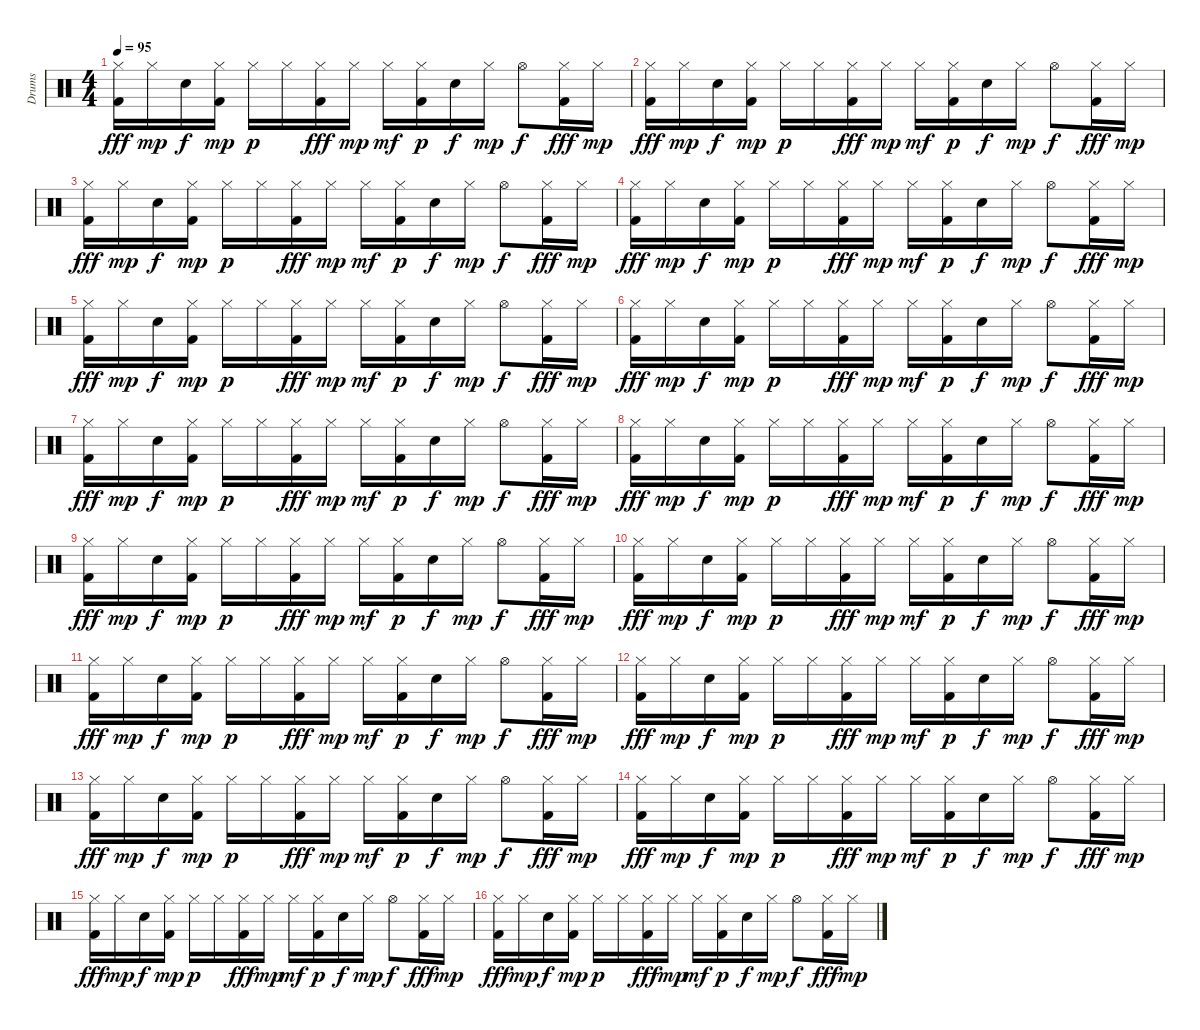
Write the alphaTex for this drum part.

\track ("Drums" "Drums") {instrument percussion}
\staff {score}
\articulation defaults
\ts (4 4)
\tempo 95
\clef neutral
\ks c
("Hi-Hat (closed)" "Kick (hit) 2").16{dy fff} "Hi-Hat (closed)".16{dy mp} "Electric Snare (hit)".16{dy f} ("Hi-Hat (closed)" "Kick (hit) 2").16{dy mp} "Hi-Hat (closed)".16{dy p} "Hi-Hat (closed)".16 ("Hi-Hat (closed)" "Kick (hit) 2").16{dy fff} "Hi-Hat (closed)".16{dy mp} "Hi-Hat (closed)".16{dy mf} ("Hi-Hat (closed)" "Kick (hit) 2").16{dy p} "Electric Snare (hit)".16{dy f} "Hi-Hat (closed)".16{dy mp} "Hi-Hat (open)".8{dy f} ("Hi-Hat (closed)" "Kick (hit) 2").16{dy fff} "Hi-Hat (closed)".16{dy mp} |
("Hi-Hat (closed)" "Kick (hit) 2").16{dy fff} "Hi-Hat (closed)".16{dy mp} "Electric Snare (hit)".16{dy f} ("Hi-Hat (closed)" "Kick (hit) 2").16{dy mp} "Hi-Hat (closed)".16{dy p} "Hi-Hat (closed)".16 ("Hi-Hat (closed)" "Kick (hit) 2").16{dy fff} "Hi-Hat (closed)".16{dy mp} "Hi-Hat (closed)".16{dy mf} ("Hi-Hat (closed)" "Kick (hit) 2").16{dy p} "Electric Snare (hit)".16{dy f} "Hi-Hat (closed)".16{dy mp} "Hi-Hat (open)".8{dy f} ("Hi-Hat (closed)" "Kick (hit) 2").16{dy fff} "Hi-Hat (closed)".16{dy mp} |
("Hi-Hat (closed)" "Kick (hit) 2").16{dy fff} "Hi-Hat (closed)".16{dy mp} "Electric Snare (hit)".16{dy f} ("Hi-Hat (closed)" "Kick (hit) 2").16{dy mp} "Hi-Hat (closed)".16{dy p} "Hi-Hat (closed)".16 ("Hi-Hat (closed)" "Kick (hit) 2").16{dy fff} "Hi-Hat (closed)".16{dy mp} "Hi-Hat (closed)".16{dy mf} ("Hi-Hat (closed)" "Kick (hit) 2").16{dy p} "Electric Snare (hit)".16{dy f} "Hi-Hat (closed)".16{dy mp} "Hi-Hat (open)".8{dy f} ("Hi-Hat (closed)" "Kick (hit) 2").16{dy fff} "Hi-Hat (closed)".16{dy mp} |
("Hi-Hat (closed)" "Kick (hit) 2").16{dy fff} "Hi-Hat (closed)".16{dy mp} "Electric Snare (hit)".16{dy f} ("Hi-Hat (closed)" "Kick (hit) 2").16{dy mp} "Hi-Hat (closed)".16{dy p} "Hi-Hat (closed)".16 ("Hi-Hat (closed)" "Kick (hit) 2").16{dy fff} "Hi-Hat (closed)".16{dy mp} "Hi-Hat (closed)".16{dy mf} ("Hi-Hat (closed)" "Kick (hit) 2").16{dy p} "Electric Snare (hit)".16{dy f} "Hi-Hat (closed)".16{dy mp} "Hi-Hat (open)".8{dy f} ("Hi-Hat (closed)" "Kick (hit) 2").16{dy fff} "Hi-Hat (closed)".16{dy mp} |
("Hi-Hat (closed)" "Kick (hit) 2").16{dy fff} "Hi-Hat (closed)".16{dy mp} "Electric Snare (hit)".16{dy f} ("Hi-Hat (closed)" "Kick (hit) 2").16{dy mp} "Hi-Hat (closed)".16{dy p} "Hi-Hat (closed)".16 ("Hi-Hat (closed)" "Kick (hit) 2").16{dy fff} "Hi-Hat (closed)".16{dy mp} "Hi-Hat (closed)".16{dy mf} ("Hi-Hat (closed)" "Kick (hit) 2").16{dy p} "Electric Snare (hit)".16{dy f} "Hi-Hat (closed)".16{dy mp} "Hi-Hat (open)".8{dy f} ("Hi-Hat (closed)" "Kick (hit) 2").16{dy fff} "Hi-Hat (closed)".16{dy mp} |
("Hi-Hat (closed)" "Kick (hit) 2").16{dy fff} "Hi-Hat (closed)".16{dy mp} "Electric Snare (hit)".16{dy f} ("Hi-Hat (closed)" "Kick (hit) 2").16{dy mp} "Hi-Hat (closed)".16{dy p} "Hi-Hat (closed)".16 ("Hi-Hat (closed)" "Kick (hit) 2").16{dy fff} "Hi-Hat (closed)".16{dy mp} "Hi-Hat (closed)".16{dy mf} ("Hi-Hat (closed)" "Kick (hit) 2").16{dy p} "Electric Snare (hit)".16{dy f} "Hi-Hat (closed)".16{dy mp} "Hi-Hat (open)".8{dy f} ("Hi-Hat (closed)" "Kick (hit) 2").16{dy fff} "Hi-Hat (closed)".16{dy mp} |
("Hi-Hat (closed)" "Kick (hit) 2").16{dy fff} "Hi-Hat (closed)".16{dy mp} "Electric Snare (hit)".16{dy f} ("Hi-Hat (closed)" "Kick (hit) 2").16{dy mp} "Hi-Hat (closed)".16{dy p} "Hi-Hat (closed)".16 ("Hi-Hat (closed)" "Kick (hit) 2").16{dy fff} "Hi-Hat (closed)".16{dy mp} "Hi-Hat (closed)".16{dy mf} ("Hi-Hat (closed)" "Kick (hit) 2").16{dy p} "Electric Snare (hit)".16{dy f} "Hi-Hat (closed)".16{dy mp} "Hi-Hat (open)".8{dy f} ("Hi-Hat (closed)" "Kick (hit) 2").16{dy fff} "Hi-Hat (closed)".16{dy mp} |
("Hi-Hat (closed)" "Kick (hit) 2").16{dy fff} "Hi-Hat (closed)".16{dy mp} "Electric Snare (hit)".16{dy f} ("Hi-Hat (closed)" "Kick (hit) 2").16{dy mp} "Hi-Hat (closed)".16{dy p} "Hi-Hat (closed)".16 ("Hi-Hat (closed)" "Kick (hit) 2").16{dy fff} "Hi-Hat (closed)".16{dy mp} "Hi-Hat (closed)".16{dy mf} ("Hi-Hat (closed)" "Kick (hit) 2").16{dy p} "Electric Snare (hit)".16{dy f} "Hi-Hat (closed)".16{dy mp} "Hi-Hat (open)".8{dy f} ("Hi-Hat (closed)" "Kick (hit) 2").16{dy fff} "Hi-Hat (closed)".16{dy mp} |
("Hi-Hat (closed)" "Kick (hit) 2").16{dy fff} "Hi-Hat (closed)".16{dy mp} "Electric Snare (hit)".16{dy f} ("Hi-Hat (closed)" "Kick (hit) 2").16{dy mp} "Hi-Hat (closed)".16{dy p} "Hi-Hat (closed)".16 ("Hi-Hat (closed)" "Kick (hit) 2").16{dy fff} "Hi-Hat (closed)".16{dy mp} "Hi-Hat (closed)".16{dy mf} ("Hi-Hat (closed)" "Kick (hit) 2").16{dy p} "Electric Snare (hit)".16{dy f} "Hi-Hat (closed)".16{dy mp} "Hi-Hat (open)".8{dy f} ("Hi-Hat (closed)" "Kick (hit) 2").16{dy fff} "Hi-Hat (closed)".16{dy mp} |
("Hi-Hat (closed)" "Kick (hit) 2").16{dy fff} "Hi-Hat (closed)".16{dy mp} "Electric Snare (hit)".16{dy f} ("Hi-Hat (closed)" "Kick (hit) 2").16{dy mp} "Hi-Hat (closed)".16{dy p} "Hi-Hat (closed)".16 ("Hi-Hat (closed)" "Kick (hit) 2").16{dy fff} "Hi-Hat (closed)".16{dy mp} "Hi-Hat (closed)".16{dy mf} ("Hi-Hat (closed)" "Kick (hit) 2").16{dy p} "Electric Snare (hit)".16{dy f} "Hi-Hat (closed)".16{dy mp} "Hi-Hat (open)".8{dy f} ("Hi-Hat (closed)" "Kick (hit) 2").16{dy fff} "Hi-Hat (closed)".16{dy mp} |
("Hi-Hat (closed)" "Kick (hit) 2").16{dy fff} "Hi-Hat (closed)".16{dy mp} "Electric Snare (hit)".16{dy f} ("Hi-Hat (closed)" "Kick (hit) 2").16{dy mp} "Hi-Hat (closed)".16{dy p} "Hi-Hat (closed)".16 ("Hi-Hat (closed)" "Kick (hit) 2").16{dy fff} "Hi-Hat (closed)".16{dy mp} "Hi-Hat (closed)".16{dy mf} ("Hi-Hat (closed)" "Kick (hit) 2").16{dy p} "Electric Snare (hit)".16{dy f} "Hi-Hat (closed)".16{dy mp} "Hi-Hat (open)".8{dy f} ("Hi-Hat (closed)" "Kick (hit) 2").16{dy fff} "Hi-Hat (closed)".16{dy mp} |
("Hi-Hat (closed)" "Kick (hit) 2").16{dy fff} "Hi-Hat (closed)".16{dy mp} "Electric Snare (hit)".16{dy f} ("Hi-Hat (closed)" "Kick (hit) 2").16{dy mp} "Hi-Hat (closed)".16{dy p} "Hi-Hat (closed)".16 ("Hi-Hat (closed)" "Kick (hit) 2").16{dy fff} "Hi-Hat (closed)".16{dy mp} "Hi-Hat (closed)".16{dy mf} ("Hi-Hat (closed)" "Kick (hit) 2").16{dy p} "Electric Snare (hit)".16{dy f} "Hi-Hat (closed)".16{dy mp} "Hi-Hat (open)".8{dy f} ("Hi-Hat (closed)" "Kick (hit) 2").16{dy fff} "Hi-Hat (closed)".16{dy mp} |
("Hi-Hat (closed)" "Kick (hit) 2").16{dy fff} "Hi-Hat (closed)".16{dy mp} "Electric Snare (hit)".16{dy f} ("Hi-Hat (closed)" "Kick (hit) 2").16{dy mp} "Hi-Hat (closed)".16{dy p} "Hi-Hat (closed)".16 ("Hi-Hat (closed)" "Kick (hit) 2").16{dy fff} "Hi-Hat (closed)".16{dy mp} "Hi-Hat (closed)".16{dy mf} ("Hi-Hat (closed)" "Kick (hit) 2").16{dy p} "Electric Snare (hit)".16{dy f} "Hi-Hat (closed)".16{dy mp} "Hi-Hat (open)".8{dy f} ("Hi-Hat (closed)" "Kick (hit) 2").16{dy fff} "Hi-Hat (closed)".16{dy mp} |
("Hi-Hat (closed)" "Kick (hit) 2").16{dy fff} "Hi-Hat (closed)".16{dy mp} "Electric Snare (hit)".16{dy f} ("Hi-Hat (closed)" "Kick (hit) 2").16{dy mp} "Hi-Hat (closed)".16{dy p} "Hi-Hat (closed)".16 ("Hi-Hat (closed)" "Kick (hit) 2").16{dy fff} "Hi-Hat (closed)".16{dy mp} "Hi-Hat (closed)".16{dy mf} ("Hi-Hat (closed)" "Kick (hit) 2").16{dy p} "Electric Snare (hit)".16{dy f} "Hi-Hat (closed)".16{dy mp} "Hi-Hat (open)".8{dy f} ("Hi-Hat (closed)" "Kick (hit) 2").16{dy fff} "Hi-Hat (closed)".16{dy mp} |
("Hi-Hat (closed)" "Kick (hit) 2").16{dy fff} "Hi-Hat (closed)".16{dy mp} "Electric Snare (hit)".16{dy f} ("Hi-Hat (closed)" "Kick (hit) 2").16{dy mp} "Hi-Hat (closed)".16{dy p} "Hi-Hat (closed)".16 ("Hi-Hat (closed)" "Kick (hit) 2").16{dy fff} "Hi-Hat (closed)".16{dy mp} "Hi-Hat (closed)".16{dy mf} ("Hi-Hat (closed)" "Kick (hit) 2").16{dy p} "Electric Snare (hit)".16{dy f} "Hi-Hat (closed)".16{dy mp} "Hi-Hat (open)".8{dy f} ("Hi-Hat (closed)" "Kick (hit) 2").16{dy fff} "Hi-Hat (closed)".16{dy mp} |
("Hi-Hat (closed)" "Kick (hit) 2").16{dy fff} "Hi-Hat (closed)".16{dy mp} "Electric Snare (hit)".16{dy f} ("Hi-Hat (closed)" "Kick (hit) 2").16{dy mp} "Hi-Hat (closed)".16{dy p} "Hi-Hat (closed)".16 ("Hi-Hat (closed)" "Kick (hit) 2").16{dy fff} "Hi-Hat (closed)".16{dy mp} "Hi-Hat (closed)".16{dy mf} ("Hi-Hat (closed)" "Kick (hit) 2").16{dy p} "Electric Snare (hit)".16{dy f} "Hi-Hat (closed)".16{dy mp} "Hi-Hat (open)".8{dy f} ("Hi-Hat (closed)" "Kick (hit) 2").16{dy fff} "Hi-Hat (closed)".16{dy mp}
